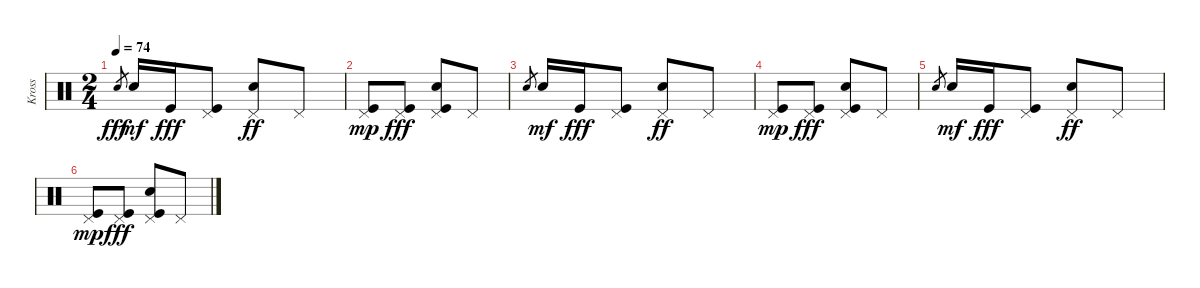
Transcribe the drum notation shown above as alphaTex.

\track ("Kross" "Kross") {instrument percussion}
\staff {score}
\articulation defaults
\ts (2 4)
\tempo 74
\clef neutral
\ks c "Electric Snare (hit)".8{gr dy fff} "Electric Snare (hit)".16{dy mf} "Kick (hit)".16{dy fff}
("Pedal Hi-Hat (hit)" "Kick (hit)").8 ("Snare (hit) 2" "Pedal Hi-Hat (hit)").8{dy ff} "Pedal Hi-Hat (hit)".8 |
("Kick (hit)" "Pedal Hi-Hat (hit)").8{dy mp} ("Kick (hit)" "Pedal Hi-Hat (hit)").8{dy fff} ("Kick (hit)" "Snare (hit) 2" "Pedal Hi-Hat (hit)").8 "Pedal Hi-Hat (hit)".8 |
"Electric Snare (hit)".8{gr} "Electric Snare (hit)".16{dy mf} "Kick (hit)".16{dy fff} ("Pedal Hi-Hat (hit)" "Kick (hit)").8 ("Snare (hit) 2" "Pedal Hi-Hat (hit)").8{dy ff} "Pedal Hi-Hat (hit)".8 |
("Kick (hit)" "Pedal Hi-Hat (hit)").8{dy mp} ("Kick (hit)" "Pedal Hi-Hat (hit)").8{dy fff} ("Kick (hit)" "Snare (hit) 2" "Pedal Hi-Hat (hit)").8 "Pedal Hi-Hat (hit)".8 |
"Electric Snare (hit)".8{gr} "Electric Snare (hit)".16{dy mf} "Kick (hit)".16{dy fff} ("Pedal Hi-Hat (hit)" "Kick (hit)").8 ("Snare (hit) 2" "Pedal Hi-Hat (hit)").8{dy ff} "Pedal Hi-Hat (hit)".8 |
("Kick (hit)" "Pedal Hi-Hat (hit)").8{dy mp} ("Kick (hit)" "Pedal Hi-Hat (hit)").8{dy fff} ("Kick (hit)" "Snare (hit) 2" "Pedal Hi-Hat (hit)").8 "Pedal Hi-Hat (hit)".8
